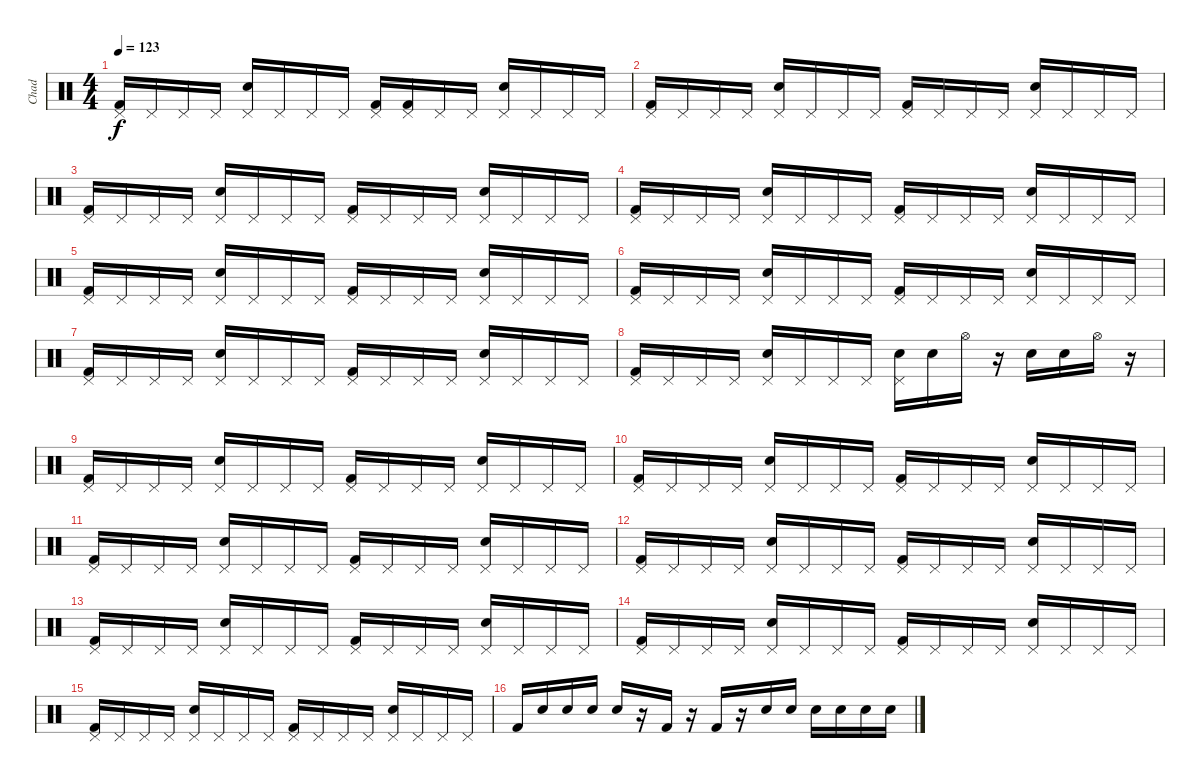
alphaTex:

\track ("Chad" "Chad") {instrument percussion}
\staff {score}
\articulation defaults
\ts (4 4)
\tempo 123
\clef neutral
\ks c
("Pedal Hi-Hat (hit)" "Kick (hit) 2").16{dy f} "Pedal Hi-Hat (hit)".16 "Pedal Hi-Hat (hit)".16 "Pedal Hi-Hat (hit)".16 ("Pedal Hi-Hat (hit)" "Electric Snare (hit)").16 "Pedal Hi-Hat (hit)".16 "Pedal Hi-Hat (hit)".16 "Pedal Hi-Hat (hit)".16 ("Pedal Hi-Hat (hit)" "Kick (hit) 2").16 ("Pedal Hi-Hat (hit)" "Kick (hit) 2").16 "Pedal Hi-Hat (hit)".16 "Pedal Hi-Hat (hit)".16 ("Pedal Hi-Hat (hit)" "Electric Snare (hit)").16 "Pedal Hi-Hat (hit)".16 "Pedal Hi-Hat (hit)".16 "Pedal Hi-Hat (hit)".16 |
("Pedal Hi-Hat (hit)" "Kick (hit) 2").16 "Pedal Hi-Hat (hit)".16 "Pedal Hi-Hat (hit)".16 "Pedal Hi-Hat (hit)".16 ("Pedal Hi-Hat (hit)" "Electric Snare (hit)").16 "Pedal Hi-Hat (hit)".16 "Pedal Hi-Hat (hit)".16 "Pedal Hi-Hat (hit)".16 ("Pedal Hi-Hat (hit)" "Kick (hit) 2").16 "Pedal Hi-Hat (hit)".16 "Pedal Hi-Hat (hit)".16 "Pedal Hi-Hat (hit)".16 ("Pedal Hi-Hat (hit)" "Electric Snare (hit)").16 "Pedal Hi-Hat (hit)".16 "Pedal Hi-Hat (hit)".16 "Pedal Hi-Hat (hit)".16 |
("Pedal Hi-Hat (hit)" "Kick (hit) 2").16 "Pedal Hi-Hat (hit)".16 "Pedal Hi-Hat (hit)".16 "Pedal Hi-Hat (hit)".16 ("Pedal Hi-Hat (hit)" "Electric Snare (hit)").16 "Pedal Hi-Hat (hit)".16 "Pedal Hi-Hat (hit)".16 "Pedal Hi-Hat (hit)".16 ("Pedal Hi-Hat (hit)" "Kick (hit) 2").16 "Pedal Hi-Hat (hit)".16 "Pedal Hi-Hat (hit)".16 "Pedal Hi-Hat (hit)".16 ("Pedal Hi-Hat (hit)" "Electric Snare (hit)").16 "Pedal Hi-Hat (hit)".16 "Pedal Hi-Hat (hit)".16 "Pedal Hi-Hat (hit)".16 |
("Pedal Hi-Hat (hit)" "Kick (hit) 2").16 "Pedal Hi-Hat (hit)".16 "Pedal Hi-Hat (hit)".16 "Pedal Hi-Hat (hit)".16 ("Pedal Hi-Hat (hit)" "Electric Snare (hit)").16 "Pedal Hi-Hat (hit)".16 "Pedal Hi-Hat (hit)".16 "Pedal Hi-Hat (hit)".16 ("Pedal Hi-Hat (hit)" "Kick (hit) 2").16 "Pedal Hi-Hat (hit)".16 "Pedal Hi-Hat (hit)".16 "Pedal Hi-Hat (hit)".16 ("Pedal Hi-Hat (hit)" "Electric Snare (hit)").16 "Pedal Hi-Hat (hit)".16 "Pedal Hi-Hat (hit)".16 "Pedal Hi-Hat (hit)".16 |
("Pedal Hi-Hat (hit)" "Kick (hit) 2").16 "Pedal Hi-Hat (hit)".16 "Pedal Hi-Hat (hit)".16 "Pedal Hi-Hat (hit)".16 ("Pedal Hi-Hat (hit)" "Electric Snare (hit)").16 "Pedal Hi-Hat (hit)".16 "Pedal Hi-Hat (hit)".16 "Pedal Hi-Hat (hit)".16 ("Pedal Hi-Hat (hit)" "Kick (hit) 2").16 "Pedal Hi-Hat (hit)".16 "Pedal Hi-Hat (hit)".16 "Pedal Hi-Hat (hit)".16 ("Pedal Hi-Hat (hit)" "Electric Snare (hit)").16 "Pedal Hi-Hat (hit)".16 "Pedal Hi-Hat (hit)".16 "Pedal Hi-Hat (hit)".16 |
("Pedal Hi-Hat (hit)" "Kick (hit) 2").16 "Pedal Hi-Hat (hit)".16 "Pedal Hi-Hat (hit)".16 "Pedal Hi-Hat (hit)".16 ("Pedal Hi-Hat (hit)" "Electric Snare (hit)").16 "Pedal Hi-Hat (hit)".16 "Pedal Hi-Hat (hit)".16 "Pedal Hi-Hat (hit)".16 ("Pedal Hi-Hat (hit)" "Kick (hit) 2").16 "Pedal Hi-Hat (hit)".16 "Pedal Hi-Hat (hit)".16 "Pedal Hi-Hat (hit)".16 ("Pedal Hi-Hat (hit)" "Electric Snare (hit)").16 "Pedal Hi-Hat (hit)".16 "Pedal Hi-Hat (hit)".16 "Pedal Hi-Hat (hit)".16 |
("Pedal Hi-Hat (hit)" "Kick (hit) 2").16 "Pedal Hi-Hat (hit)".16 "Pedal Hi-Hat (hit)".16 "Pedal Hi-Hat (hit)".16 ("Pedal Hi-Hat (hit)" "Electric Snare (hit)").16 "Pedal Hi-Hat (hit)".16 "Pedal Hi-Hat (hit)".16 "Pedal Hi-Hat (hit)".16 ("Pedal Hi-Hat (hit)" "Kick (hit) 2").16 "Pedal Hi-Hat (hit)".16 "Pedal Hi-Hat (hit)".16 "Pedal Hi-Hat (hit)".16 ("Pedal Hi-Hat (hit)" "Electric Snare (hit)").16 "Pedal Hi-Hat (hit)".16 "Pedal Hi-Hat (hit)".16 "Pedal Hi-Hat (hit)".16 |
("Pedal Hi-Hat (hit)" "Kick (hit) 2").16 "Pedal Hi-Hat (hit)".16 "Pedal Hi-Hat (hit)".16 "Pedal Hi-Hat (hit)".16 ("Pedal Hi-Hat (hit)" "Electric Snare (hit)").16 "Pedal Hi-Hat (hit)".16 "Pedal Hi-Hat (hit)".16 "Pedal Hi-Hat (hit)".16 ("Pedal Hi-Hat (hit)" "Electric Snare (hit)").16 "Electric Snare (hit)".16 "Hi-Hat (open)".16 r.16 "Electric Snare (hit)".16 "Electric Snare (hit)".16 "Hi-Hat (open)".16 r.16 |
("Pedal Hi-Hat (hit)" "Kick (hit) 2").16 "Pedal Hi-Hat (hit)".16 "Pedal Hi-Hat (hit)".16 "Pedal Hi-Hat (hit)".16 ("Pedal Hi-Hat (hit)" "Electric Snare (hit)").16 "Pedal Hi-Hat (hit)".16 "Pedal Hi-Hat (hit)".16 "Pedal Hi-Hat (hit)".16 ("Pedal Hi-Hat (hit)" "Kick (hit) 2").16 "Pedal Hi-Hat (hit)".16 "Pedal Hi-Hat (hit)".16 "Pedal Hi-Hat (hit)".16 ("Pedal Hi-Hat (hit)" "Electric Snare (hit)").16 "Pedal Hi-Hat (hit)".16 "Pedal Hi-Hat (hit)".16 "Pedal Hi-Hat (hit)".16 |
("Pedal Hi-Hat (hit)" "Kick (hit) 2").16 "Pedal Hi-Hat (hit)".16 "Pedal Hi-Hat (hit)".16 "Pedal Hi-Hat (hit)".16 ("Pedal Hi-Hat (hit)" "Electric Snare (hit)").16 "Pedal Hi-Hat (hit)".16 "Pedal Hi-Hat (hit)".16 "Pedal Hi-Hat (hit)".16 ("Pedal Hi-Hat (hit)" "Kick (hit) 2").16 "Pedal Hi-Hat (hit)".16 "Pedal Hi-Hat (hit)".16 "Pedal Hi-Hat (hit)".16 ("Pedal Hi-Hat (hit)" "Electric Snare (hit)").16 "Pedal Hi-Hat (hit)".16 "Pedal Hi-Hat (hit)".16 "Pedal Hi-Hat (hit)".16 |
("Pedal Hi-Hat (hit)" "Kick (hit) 2").16 "Pedal Hi-Hat (hit)".16 "Pedal Hi-Hat (hit)".16 "Pedal Hi-Hat (hit)".16 ("Pedal Hi-Hat (hit)" "Electric Snare (hit)").16 "Pedal Hi-Hat (hit)".16 "Pedal Hi-Hat (hit)".16 "Pedal Hi-Hat (hit)".16 ("Pedal Hi-Hat (hit)" "Kick (hit) 2").16 "Pedal Hi-Hat (hit)".16 "Pedal Hi-Hat (hit)".16 "Pedal Hi-Hat (hit)".16 ("Pedal Hi-Hat (hit)" "Electric Snare (hit)").16 "Pedal Hi-Hat (hit)".16 "Pedal Hi-Hat (hit)".16 "Pedal Hi-Hat (hit)".16 |
("Pedal Hi-Hat (hit)" "Kick (hit) 2").16 "Pedal Hi-Hat (hit)".16 "Pedal Hi-Hat (hit)".16 "Pedal Hi-Hat (hit)".16 ("Pedal Hi-Hat (hit)" "Electric Snare (hit)").16 "Pedal Hi-Hat (hit)".16 "Pedal Hi-Hat (hit)".16 "Pedal Hi-Hat (hit)".16 ("Pedal Hi-Hat (hit)" "Kick (hit) 2").16 "Pedal Hi-Hat (hit)".16 "Pedal Hi-Hat (hit)".16 "Pedal Hi-Hat (hit)".16 ("Pedal Hi-Hat (hit)" "Electric Snare (hit)").16 "Pedal Hi-Hat (hit)".16 "Pedal Hi-Hat (hit)".16 "Pedal Hi-Hat (hit)".16 |
("Pedal Hi-Hat (hit)" "Kick (hit) 2").16 "Pedal Hi-Hat (hit)".16 "Pedal Hi-Hat (hit)".16 "Pedal Hi-Hat (hit)".16 ("Pedal Hi-Hat (hit)" "Electric Snare (hit)").16 "Pedal Hi-Hat (hit)".16 "Pedal Hi-Hat (hit)".16 "Pedal Hi-Hat (hit)".16 ("Pedal Hi-Hat (hit)" "Kick (hit) 2").16 "Pedal Hi-Hat (hit)".16 "Pedal Hi-Hat (hit)".16 "Pedal Hi-Hat (hit)".16 ("Pedal Hi-Hat (hit)" "Electric Snare (hit)").16 "Pedal Hi-Hat (hit)".16 "Pedal Hi-Hat (hit)".16 "Pedal Hi-Hat (hit)".16 |
("Pedal Hi-Hat (hit)" "Kick (hit) 2").16 "Pedal Hi-Hat (hit)".16 "Pedal Hi-Hat (hit)".16 "Pedal Hi-Hat (hit)".16 ("Pedal Hi-Hat (hit)" "Electric Snare (hit)").16 "Pedal Hi-Hat (hit)".16 "Pedal Hi-Hat (hit)".16 "Pedal Hi-Hat (hit)".16 ("Pedal Hi-Hat (hit)" "Kick (hit) 2").16 "Pedal Hi-Hat (hit)".16 "Pedal Hi-Hat (hit)".16 "Pedal Hi-Hat (hit)".16 ("Pedal Hi-Hat (hit)" "Electric Snare (hit)").16 "Pedal Hi-Hat (hit)".16 "Pedal Hi-Hat (hit)".16 "Pedal Hi-Hat (hit)".16 |
("Pedal Hi-Hat (hit)" "Kick (hit) 2").16 "Pedal Hi-Hat (hit)".16 "Pedal Hi-Hat (hit)".16 "Pedal Hi-Hat (hit)".16 ("Pedal Hi-Hat (hit)" "Electric Snare (hit)").16 "Pedal Hi-Hat (hit)".16 "Pedal Hi-Hat (hit)".16 "Pedal Hi-Hat (hit)".16 ("Pedal Hi-Hat (hit)" "Kick (hit) 2").16 "Pedal Hi-Hat (hit)".16 "Pedal Hi-Hat (hit)".16 "Pedal Hi-Hat (hit)".16 ("Pedal Hi-Hat (hit)" "Electric Snare (hit)").16 "Pedal Hi-Hat (hit)".16 "Pedal Hi-Hat (hit)".16 "Pedal Hi-Hat (hit)".16 |
"Kick (hit) 2".16 "Electric Snare (hit)".16 "Electric Snare (hit)".16 "Electric Snare (hit)".16 "Electric Snare (hit)".16 r.16 "Kick (hit) 2".16 r.16 "Kick (hit) 2".16 r.16 "Electric Snare (hit)".16 "Electric Snare (hit)".16 "Electric Snare (hit)".16 "Electric Snare (hit)".16 "Electric Snare (hit)".16 "Electric Snare (hit)".16
